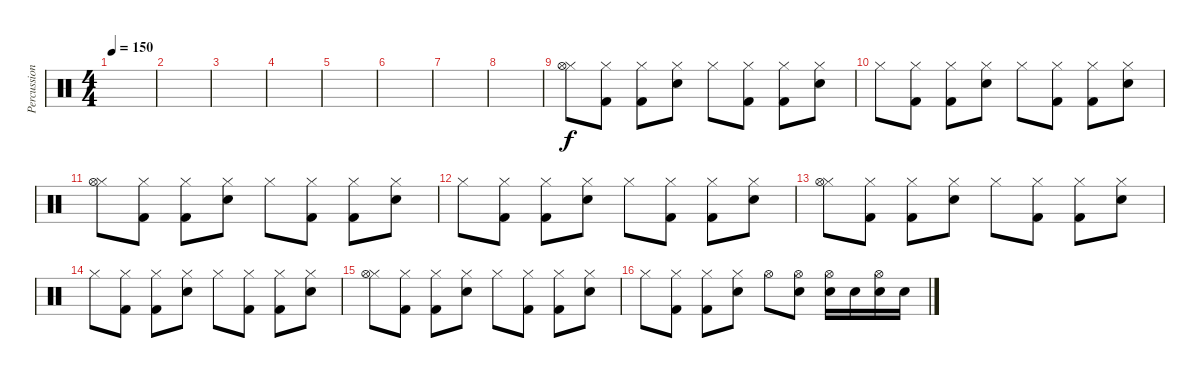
\track ("Percussioni" "Percussion") {instrument percussion}
\staff {score}
\articulation defaults
\ts (4 4)
\tempo 150
\clef neutral
\ks c
|
|
|
|
|
|
|
|
("Hi-Hat (closed)" "Hi-Hat (open)").8 ("Hi-Hat (closed)" "Kick (hit) 2").8 ("Hi-Hat (closed)" "Kick (hit) 2").8 ("Hi-Hat (closed)" "Snare (hit) 2").8 "Hi-Hat (closed)".8 ("Hi-Hat (closed)" "Kick (hit) 2").8 ("Hi-Hat (closed)" "Kick (hit) 2").8 ("Hi-Hat (closed)" "Snare (hit) 2").8 |
"Hi-Hat (closed)".8 ("Hi-Hat (closed)" "Kick (hit) 2").8 ("Hi-Hat (closed)" "Kick (hit) 2").8 ("Hi-Hat (closed)" "Snare (hit) 2").8 "Hi-Hat (closed)".8 ("Hi-Hat (closed)" "Kick (hit) 2").8 ("Hi-Hat (closed)" "Kick (hit) 2").8 ("Hi-Hat (closed)" "Snare (hit) 2").8 |
("Hi-Hat (closed)" "Hi-Hat (open)").8 ("Hi-Hat (closed)" "Kick (hit) 2").8 ("Hi-Hat (closed)" "Kick (hit) 2").8 ("Hi-Hat (closed)" "Snare (hit) 2").8 "Hi-Hat (closed)".8 ("Hi-Hat (closed)" "Kick (hit) 2").8 ("Hi-Hat (closed)" "Kick (hit) 2").8 ("Hi-Hat (closed)" "Snare (hit) 2").8 |
"Hi-Hat (closed)".8 ("Hi-Hat (closed)" "Kick (hit) 2").8 ("Hi-Hat (closed)" "Kick (hit) 2").8 ("Hi-Hat (closed)" "Snare (hit) 2").8 "Hi-Hat (closed)".8 ("Hi-Hat (closed)" "Kick (hit) 2").8 ("Hi-Hat (closed)" "Kick (hit) 2").8 ("Hi-Hat (closed)" "Snare (hit) 2").8 |
("Hi-Hat (closed)" "Hi-Hat (open)").8 ("Hi-Hat (closed)" "Kick (hit) 2").8 ("Hi-Hat (closed)" "Kick (hit) 2").8 ("Hi-Hat (closed)" "Snare (hit) 2").8 "Hi-Hat (closed)".8 ("Hi-Hat (closed)" "Kick (hit) 2").8 ("Hi-Hat (closed)" "Kick (hit) 2").8 ("Hi-Hat (closed)" "Snare (hit) 2").8 |
"Hi-Hat (closed)".8 ("Hi-Hat (closed)" "Kick (hit) 2").8 ("Hi-Hat (closed)" "Kick (hit) 2").8 ("Hi-Hat (closed)" "Snare (hit) 2").8 "Hi-Hat (closed)".8 ("Hi-Hat (closed)" "Kick (hit) 2").8 ("Hi-Hat (closed)" "Kick (hit) 2").8 ("Hi-Hat (closed)" "Snare (hit) 2").8 |
("Hi-Hat (closed)" "Hi-Hat (open)").8 ("Hi-Hat (closed)" "Kick (hit) 2").8 ("Hi-Hat (closed)" "Kick (hit) 2").8 ("Hi-Hat (closed)" "Snare (hit) 2").8 "Hi-Hat (closed)".8 ("Hi-Hat (closed)" "Kick (hit) 2").8 ("Hi-Hat (closed)" "Kick (hit) 2").8 ("Hi-Hat (closed)" "Snare (hit) 2").8 |
"Hi-Hat (closed)".8 ("Hi-Hat (closed)" "Kick (hit) 2").8 ("Hi-Hat (closed)" "Kick (hit) 2").8 ("Hi-Hat (closed)" "Snare (hit) 2").8 "Hi-Hat (open)".8 ("Hi-Hat (open)" "Snare (hit) 2").8 ("Hi-Hat (open)" "Snare (hit) 2").16 "Snare (hit) 2".16 ("Hi-Hat (open)" "Snare (hit) 2").16 "Snare (hit) 2".16
